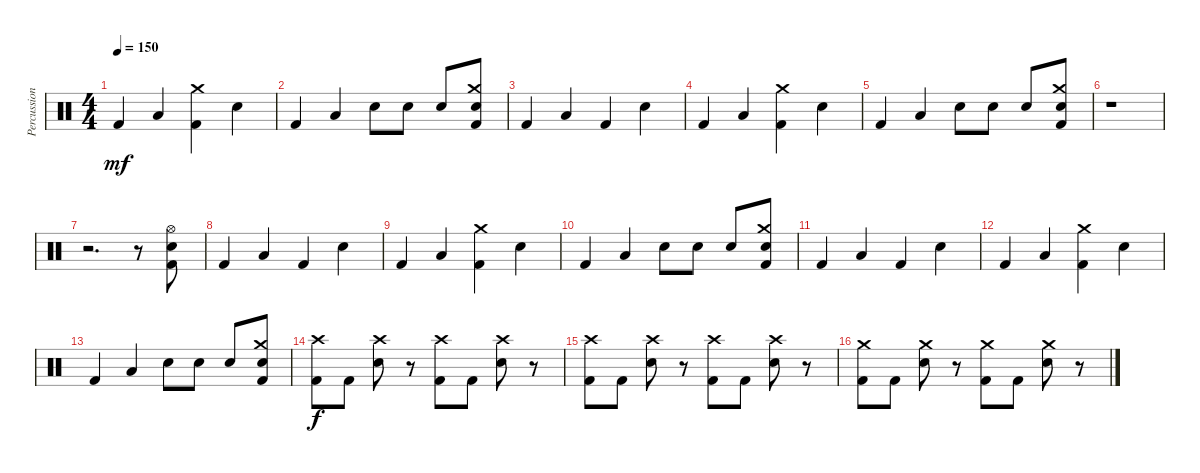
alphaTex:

\track ("Percussion" "Percussion") {instrument percussion}
\staff {score}
\articulation defaults
\ts (4 4)
\tempo 150
\clef neutral
\ks c "Kick (hit) 2".4{dy mf} "Low Floor Tom (hit)".4
("Crash medium (hit)" "Kick (hit) 2").4 "Electric Snare (hit)".4 |
"Kick (hit) 2".4 "Low Floor Tom (hit)".4 "Electric Snare (hit)".8 "Electric Snare (hit)".8 "Electric Snare (hit)".8 ("Crash medium (hit)" "Kick (hit) 2" "Electric Snare (hit)").8 |
"Kick (hit) 2".4 "Low Floor Tom (hit)".4 "Kick (hit) 2".4 "Electric Snare (hit)".4 |
"Kick (hit) 2".4 "Low Floor Tom (hit)".4 ("Crash medium (hit)" "Kick (hit) 2").4 "Electric Snare (hit)".4 |
"Kick (hit) 2".4 "Low Floor Tom (hit)".4 "Electric Snare (hit)".8 "Electric Snare (hit)".8 "Electric Snare (hit)".8 ("Crash medium (hit)" "Kick (hit) 2" "Electric Snare (hit)").8 |
r.1 |
r.2{d} r.8 ("Electric Snare (hit)" "Kick (hit) 2" "Hi-Hat (open)").8 |
"Kick (hit) 2".4 "Low Floor Tom (hit)".4 "Kick (hit) 2".4 "Electric Snare (hit)".4 |
"Kick (hit) 2".4 "Low Floor Tom (hit)".4 ("Crash medium (hit)" "Kick (hit) 2").4 "Electric Snare (hit)".4 |
"Kick (hit) 2".4 "Low Floor Tom (hit)".4 "Electric Snare (hit)".8 "Electric Snare (hit)".8 "Electric Snare (hit)".8 ("Crash medium (hit)" "Kick (hit) 2" "Electric Snare (hit)").8 |
"Kick (hit) 2".4 "Low Floor Tom (hit)".4 "Kick (hit) 2".4 "Electric Snare (hit)".4 |
"Kick (hit) 2".4 "Low Floor Tom (hit)".4 ("Crash medium (hit)" "Kick (hit) 2").4 "Electric Snare (hit)".4 |
"Kick (hit) 2".4 "Low Floor Tom (hit)".4 "Electric Snare (hit)".8 "Electric Snare (hit)".8 "Electric Snare (hit)".8 ("Crash medium (hit)" "Kick (hit) 2" "Electric Snare (hit)").8 |
("Crash high (hit)" "Kick (hit) 2").8{dy f} "Kick (hit) 2".8 ("Crash high (hit)" "Electric Snare (hit)").8 r.8 ("Crash high (hit)" "Kick (hit) 2").8 "Kick (hit) 2".8 ("Crash high (hit)" "Electric Snare (hit)").8 r.8 |
("Crash high (hit)" "Kick (hit) 2").8 "Kick (hit) 2".8 ("Crash high (hit)" "Electric Snare (hit)").8 r.8 ("Crash high (hit)" "Kick (hit) 2").8 "Kick (hit) 2".8 ("Crash high (hit)" "Electric Snare (hit)").8 r.8 |
("Crash medium (hit)" "Kick (hit) 2").8 "Kick (hit) 2".8 ("Crash medium (hit)" "Electric Snare (hit)").8 r.8 ("Crash medium (hit)" "Kick (hit) 2").8 "Kick (hit) 2".8 ("Crash medium (hit)" "Electric Snare (hit)").8 r.8
